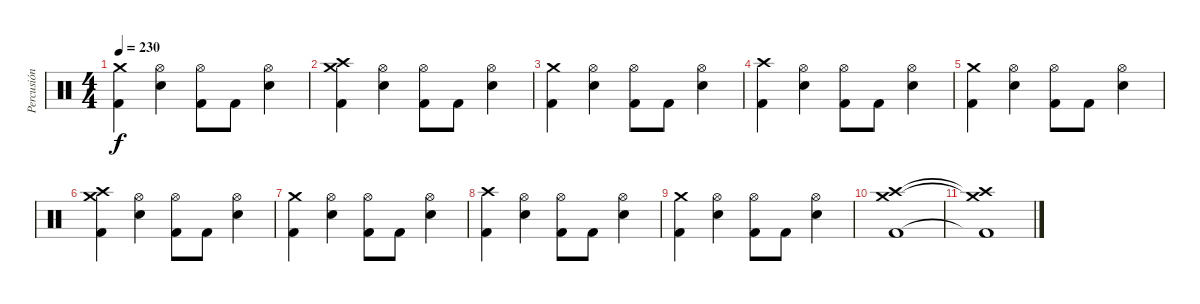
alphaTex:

\track ("Percusión" "Percusión") {instrument percussion}
\staff {score}
\articulation defaults
\ts (4 4)
\tempo 230
\clef neutral
\ks c
("Crash medium (hit)" "Kick (hit) 2").4{dy f} ("Hi-Hat (open)" "Snare (hit) 2").4 ("Hi-Hat (open)" "Kick (hit) 2").8 "Kick (hit) 2".8 ("Hi-Hat (open)" "Snare (hit) 2").4 |
("Crash medium (hit)" "Crash high (hit)" "Kick (hit) 2").4 ("Hi-Hat (open)" "Snare (hit) 2").4 ("Hi-Hat (open)" "Kick (hit) 2").8 "Kick (hit) 2".8 ("Hi-Hat (open)" "Snare (hit) 2").4 |
("Crash medium (hit)" "Kick (hit) 2").4 ("Hi-Hat (open)" "Snare (hit) 2").4 ("Hi-Hat (open)" "Kick (hit) 2").8 "Kick (hit) 2".8 ("Hi-Hat (open)" "Snare (hit) 2").4 |
("Crash high (hit)" "Kick (hit) 2").4 ("Hi-Hat (open)" "Snare (hit) 2").4 ("Hi-Hat (open)" "Kick (hit) 2").8 "Kick (hit) 2".8 ("Hi-Hat (open)" "Snare (hit) 2").4 |
("Crash medium (hit)" "Kick (hit) 2").4 ("Hi-Hat (open)" "Snare (hit) 2").4 ("Hi-Hat (open)" "Kick (hit) 2").8 "Kick (hit) 2".8 ("Hi-Hat (open)" "Snare (hit) 2").4 |
("Crash medium (hit)" "Crash high (hit)" "Kick (hit) 2").4 ("Hi-Hat (open)" "Snare (hit) 2").4 ("Hi-Hat (open)" "Kick (hit) 2").8 "Kick (hit) 2".8 ("Hi-Hat (open)" "Snare (hit) 2").4 |
("Crash medium (hit)" "Kick (hit) 2").4 ("Hi-Hat (open)" "Snare (hit) 2").4 ("Hi-Hat (open)" "Kick (hit) 2").8 "Kick (hit) 2".8 ("Hi-Hat (open)" "Snare (hit) 2").4 |
("Crash high (hit)" "Kick (hit) 2").4 ("Hi-Hat (open)" "Snare (hit) 2").4 ("Hi-Hat (open)" "Kick (hit) 2").8 "Kick (hit) 2".8 ("Hi-Hat (open)" "Snare (hit) 2").4 |
("Crash medium (hit)" "Kick (hit) 2").4 ("Hi-Hat (open)" "Snare (hit) 2").4 ("Hi-Hat (open)" "Kick (hit) 2").8 "Kick (hit) 2".8 ("Hi-Hat (open)" "Snare (hit) 2").4 |
("Crash medium (hit)" "Crash high (hit)" "Kick (hit) 2").1 |
("Crash medium (hit)"{t} "Crash high (hit)"{t} "Kick (hit) 2"{t}).1
